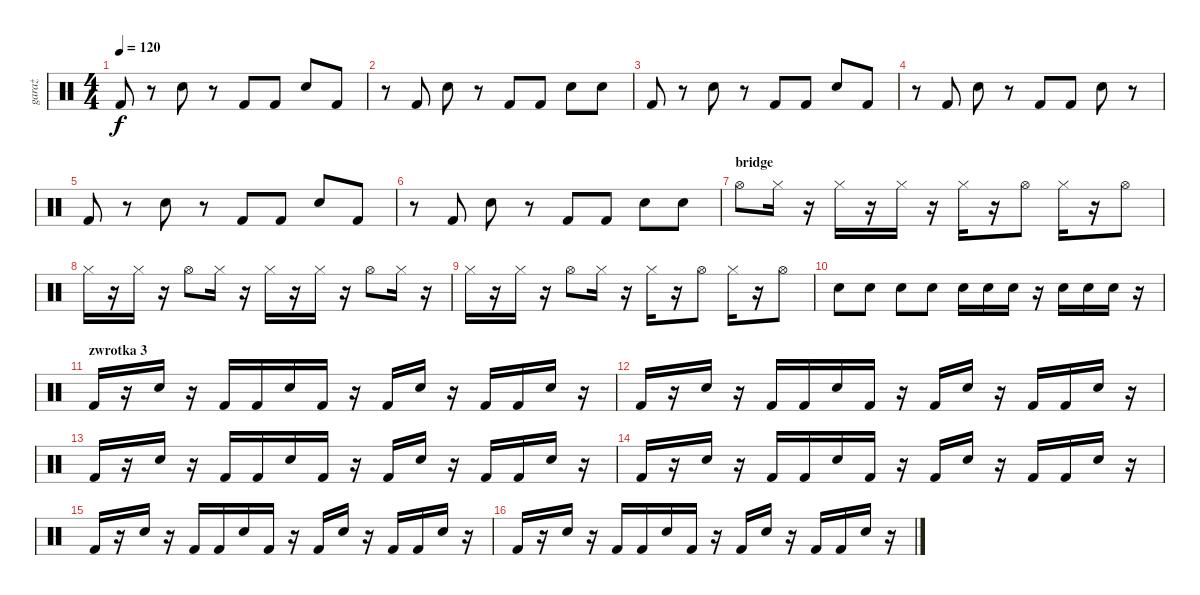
\track ("garaż" "garaż") {instrument percussion}
\staff {score}
\articulation defaults
\ts (4 4)
\tempo 120
\clef neutral
\ks c "Kick (hit) 2".8{dy f}
r.8 "Snare (hit) 2".8 r.8 "Kick (hit) 2".8 "Kick (hit) 2".8 "Snare (hit) 2".8 "Kick (hit) 2".8 |
r.8 "Kick (hit) 2".8 "Snare (hit) 2".8 r.8 "Kick (hit) 2".8 "Kick (hit) 2".8 "Snare (hit) 2".8 "Snare (hit) 2".8 |
"Kick (hit) 2".8 r.8 "Snare (hit) 2".8 r.8 "Kick (hit) 2".8 "Kick (hit) 2".8 "Snare (hit) 2".8 "Kick (hit) 2".8 |
r.8 "Kick (hit) 2".8 "Snare (hit) 2".8 r.8 "Kick (hit) 2".8 "Kick (hit) 2".8 "Snare (hit) 2".8 r.8 |
"Kick (hit) 2".8 r.8 "Snare (hit) 2".8 r.8 "Kick (hit) 2".8 "Kick (hit) 2".8 "Snare (hit) 2".8 "Kick (hit) 2".8 |
r.8 "Kick (hit) 2".8 "Snare (hit) 2".8 r.8 "Kick (hit) 2".8 "Kick (hit) 2".8 "Snare (hit) 2".8 "Snare (hit) 2".8 |
\section ("" "bridge")
"Hi-Hat (open)".8 "Hi-Hat (closed)".16 r.16 "Hi-Hat (closed)".16 r.16 "Hi-Hat (closed)".16 r.16 "Hi-Hat (closed)".16 r.16 "Hi-Hat (open)".8 "Hi-Hat (closed)".16 r.16 "Hi-Hat (open)".8 |
"Hi-Hat (closed)".16 r.16 "Hi-Hat (closed)".16 r.16 "Hi-Hat (open)".8 "Hi-Hat (closed)".16 r.16 "Hi-Hat (closed)".16 r.16 "Hi-Hat (closed)".16 r.16 "Hi-Hat (open)".8 "Hi-Hat (closed)".16 r.16 |
"Hi-Hat (closed)".16 r.16 "Hi-Hat (closed)".16 r.16 "Hi-Hat (open)".8 "Hi-Hat (closed)".16 r.16 "Hi-Hat (closed)".16 r.16 "Hi-Hat (open)".8 "Hi-Hat (closed)".16 r.16 "Hi-Hat (open)".8 |
"Snare (hit) 2".8 "Snare (hit) 2".8 "Snare (hit) 2".8 "Snare (hit) 2".8 "Snare (hit) 2".16 "Snare (hit) 2".16 "Snare (hit) 2".16 r.16 "Snare (hit) 2".16 "Snare (hit) 2".16 "Snare (hit) 2".16 r.16 |
\section ("" "zwrotka 3")
"Kick (hit) 2".16 r.16 "Snare (hit) 2".16 r.16 "Kick (hit) 2".16 "Kick (hit) 2".16 "Snare (hit) 2".16 "Kick (hit) 2".16 r.16 "Kick (hit) 2".16 "Snare (hit) 2".16 r.16 "Kick (hit) 2".16 "Kick (hit) 2".16 "Snare (hit) 2".16 r.16 |
"Kick (hit) 2".16 r.16 "Snare (hit) 2".16 r.16 "Kick (hit) 2".16 "Kick (hit) 2".16 "Snare (hit) 2".16 "Kick (hit) 2".16 r.16 "Kick (hit) 2".16 "Snare (hit) 2".16 r.16 "Kick (hit) 2".16 "Kick (hit) 2".16 "Snare (hit) 2".16 r.16 |
"Kick (hit) 2".16 r.16 "Snare (hit) 2".16 r.16 "Kick (hit) 2".16 "Kick (hit) 2".16 "Snare (hit) 2".16 "Kick (hit) 2".16 r.16 "Kick (hit) 2".16 "Snare (hit) 2".16 r.16 "Kick (hit) 2".16 "Kick (hit) 2".16 "Snare (hit) 2".16 r.16 |
"Kick (hit) 2".16 r.16 "Snare (hit) 2".16 r.16 "Kick (hit) 2".16 "Kick (hit) 2".16 "Snare (hit) 2".16 "Kick (hit) 2".16 r.16 "Kick (hit) 2".16 "Snare (hit) 2".16 r.16 "Kick (hit) 2".16 "Kick (hit) 2".16 "Snare (hit) 2".16 r.16 |
"Kick (hit) 2".16 r.16 "Snare (hit) 2".16 r.16 "Kick (hit) 2".16 "Kick (hit) 2".16 "Snare (hit) 2".16 "Kick (hit) 2".16 r.16 "Kick (hit) 2".16 "Snare (hit) 2".16 r.16 "Kick (hit) 2".16 "Kick (hit) 2".16 "Snare (hit) 2".16 r.16 |
"Kick (hit) 2".16 r.16 "Snare (hit) 2".16 r.16 "Kick (hit) 2".16 "Kick (hit) 2".16 "Snare (hit) 2".16 "Kick (hit) 2".16 r.16 "Kick (hit) 2".16 "Snare (hit) 2".16 r.16 "Kick (hit) 2".16 "Kick (hit) 2".16 "Snare (hit) 2".16 r.16
